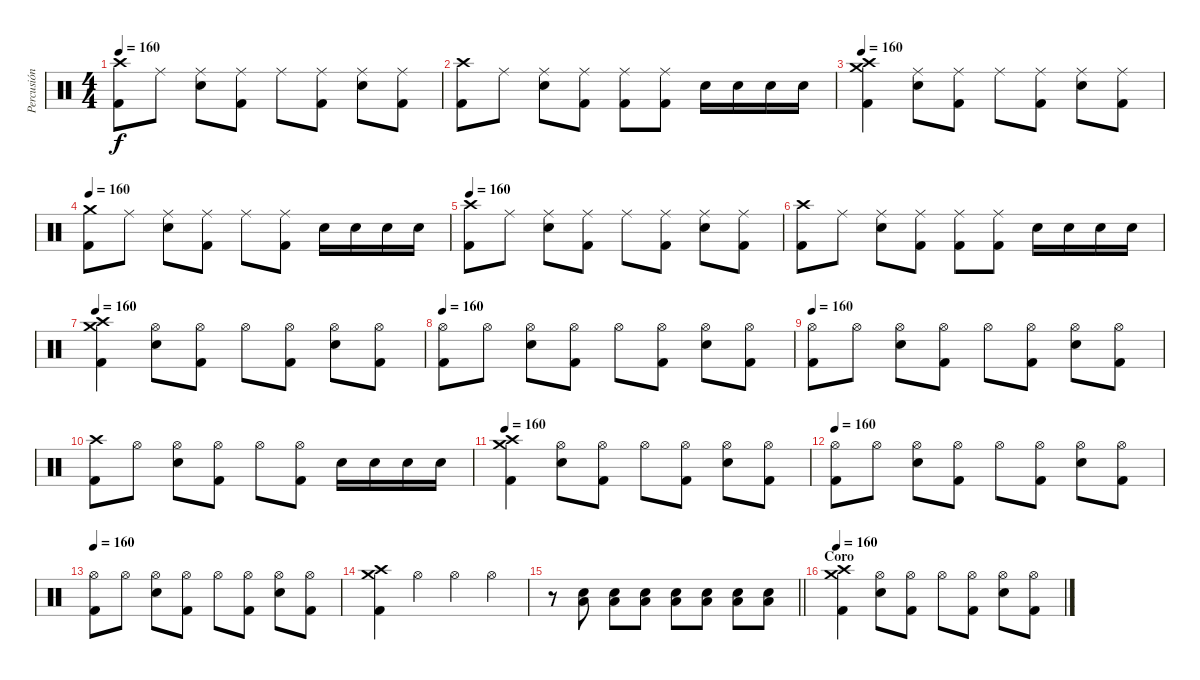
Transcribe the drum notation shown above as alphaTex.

\track ("Percusión" "Percusión") {instrument percussion}
\staff {score}
\articulation defaults
\ts (4 4)
\tempo 160
\clef neutral
\ks c
("Crash high (hit)" "Kick (hit) 2").8{dy f} "Ride (middle)".8 ("Ride (middle)" "Snare (hit) 2").8 ("Ride (middle)" "Kick (hit) 2").8 "Ride (middle)".8 ("Ride (middle)" "Kick (hit) 2").8 ("Ride (middle)" "Snare (hit) 2").8 ("Ride (middle)" "Kick (hit) 2").8 |
("Crash high (hit)" "Kick (hit) 2").8 "Ride (middle)".8 ("Ride (middle)" "Snare (hit) 2").8 ("Ride (middle)" "Kick (hit) 2").8 ("Ride (middle)" "Kick (hit) 2").8 ("Ride (middle)" "Kick (hit) 2").8 "Snare (hit) 2".16 "Snare (hit) 2".16 "Snare (hit) 2".16 "Snare (hit) 2".16 |
\tempo 160
("Crash high (hit)" "Crash medium (hit)" "Kick (hit) 2").4 ("Ride (middle)" "Snare (hit) 2").8 ("Ride (middle)" "Kick (hit) 2").8 "Ride (middle)".8 ("Ride (middle)" "Kick (hit) 2").8 ("Ride (middle)" "Snare (hit) 2").8 ("Ride (middle)" "Kick (hit) 2").8 |
\tempo 160
("Crash medium (hit)" "Kick (hit) 2").8 "Ride (middle)".8 ("Ride (middle)" "Snare (hit) 2").8 ("Ride (middle)" "Kick (hit) 2").8 "Ride (middle)".8 ("Ride (middle)" "Kick (hit) 2").8 "Snare (hit) 2".16 "Snare (hit) 2".16 "Snare (hit) 2".16 "Snare (hit) 2".16 |
\tempo 160
("Crash high (hit)" "Kick (hit) 2").8 "Ride (middle)".8 ("Ride (middle)" "Snare (hit) 2").8 ("Ride (middle)" "Kick (hit) 2").8 "Ride (middle)".8 ("Ride (middle)" "Kick (hit) 2").8 ("Ride (middle)" "Snare (hit) 2").8 ("Ride (middle)" "Kick (hit) 2").8 |
("Crash high (hit)" "Kick (hit) 2").8 "Ride (middle)".8 ("Ride (middle)" "Snare (hit) 2").8 ("Ride (middle)" "Kick (hit) 2").8 ("Ride (middle)" "Kick (hit) 2").8 ("Ride (middle)" "Kick (hit) 2").8 "Snare (hit) 2".16 "Snare (hit) 2".16 "Snare (hit) 2".16 "Snare (hit) 2".16 |
\tempo 160
("Crash high (hit)" "Crash medium (hit)" "Kick (hit) 2").4 ("Hi-Hat (open)" "Snare (hit) 2").8 ("Hi-Hat (open)" "Kick (hit) 2").8 "Hi-Hat (open)".8 ("Hi-Hat (open)" "Kick (hit) 2").8 ("Hi-Hat (open)" "Snare (hit) 2").8 ("Hi-Hat (open)" "Kick (hit) 2").8 |
\tempo 160
("Hi-Hat (open)" "Kick (hit) 2").8 "Hi-Hat (open)".8 ("Hi-Hat (open)" "Snare (hit) 2").8 ("Hi-Hat (open)" "Kick (hit) 2").8 "Hi-Hat (open)".8 ("Hi-Hat (open)" "Kick (hit) 2").8 ("Hi-Hat (open)" "Snare (hit) 2").8 ("Hi-Hat (open)" "Kick (hit) 2").8 |
\tempo 160
("Hi-Hat (open)" "Kick (hit) 2").8 "Hi-Hat (open)".8 ("Hi-Hat (open)" "Snare (hit) 2").8 ("Hi-Hat (open)" "Kick (hit) 2").8 "Hi-Hat (open)".8 ("Hi-Hat (open)" "Kick (hit) 2").8 ("Hi-Hat (open)" "Snare (hit) 2").8 ("Hi-Hat (open)" "Kick (hit) 2").8 |
("Crash high (hit)" "Kick (hit) 2").8 "Hi-Hat (open)".8 ("Hi-Hat (open)" "Snare (hit) 2").8 ("Hi-Hat (open)" "Kick (hit) 2").8 "Hi-Hat (open)".8 ("Hi-Hat (open)" "Kick (hit) 2").8 "Snare (hit) 2".16 "Snare (hit) 2".16 "Snare (hit) 2".16 "Snare (hit) 2".16 |
\tempo 160
("Crash high (hit)" "Crash medium (hit)" "Kick (hit) 2").4 ("Hi-Hat (open)" "Snare (hit) 2").8 ("Hi-Hat (open)" "Kick (hit) 2").8 "Hi-Hat (open)".8 ("Hi-Hat (open)" "Kick (hit) 2").8 ("Hi-Hat (open)" "Snare (hit) 2").8 ("Hi-Hat (open)" "Kick (hit) 2").8 |
\tempo 160
("Hi-Hat (open)" "Kick (hit) 2").8 "Hi-Hat (open)".8 ("Hi-Hat (open)" "Snare (hit) 2").8 ("Hi-Hat (open)" "Kick (hit) 2").8 "Hi-Hat (open)".8 ("Hi-Hat (open)" "Kick (hit) 2").8 ("Hi-Hat (open)" "Snare (hit) 2").8 ("Hi-Hat (open)" "Kick (hit) 2").8 |
\tempo 160
("Hi-Hat (open)" "Kick (hit) 2").8 "Hi-Hat (open)".8 ("Hi-Hat (open)" "Snare (hit) 2").8 ("Hi-Hat (open)" "Kick (hit) 2").8 "Hi-Hat (open)".8 ("Hi-Hat (open)" "Kick (hit) 2").8 ("Hi-Hat (open)" "Snare (hit) 2").8 ("Hi-Hat (open)" "Kick (hit) 2").8 |
("Crash high (hit)" "Crash medium (hit)" "Kick (hit) 2").4 "Hi-Hat (open)".4 "Hi-Hat (open)".4 "Hi-Hat (open)".4 |
\barLineRight lightlight
r.8 ("Snare (hit) 2" "Low Floor Tom (hit)").8 ("Snare (hit) 2" "Low Floor Tom (hit)").8 ("Snare (hit) 2" "Low Floor Tom (hit)").8 ("Snare (hit) 2" "Low Floor Tom (hit)").8 ("Snare (hit) 2" "Low Floor Tom (hit)").8 ("Snare (hit) 2" "Low Floor Tom (hit)").8 ("Snare (hit) 2" "Low Floor Tom (hit)").8 |
\section ("" "Coro")
\tempo 160
("Crash high (hit)" "Crash medium (hit)" "Kick (hit) 2").4 ("Hi-Hat (open)" "Snare (hit) 2").8 ("Hi-Hat (open)" "Kick (hit) 2").8 "Hi-Hat (open)".8 ("Hi-Hat (open)" "Kick (hit) 2").8 ("Hi-Hat (open)" "Snare (hit) 2").8 ("Hi-Hat (open)" "Kick (hit) 2").8
